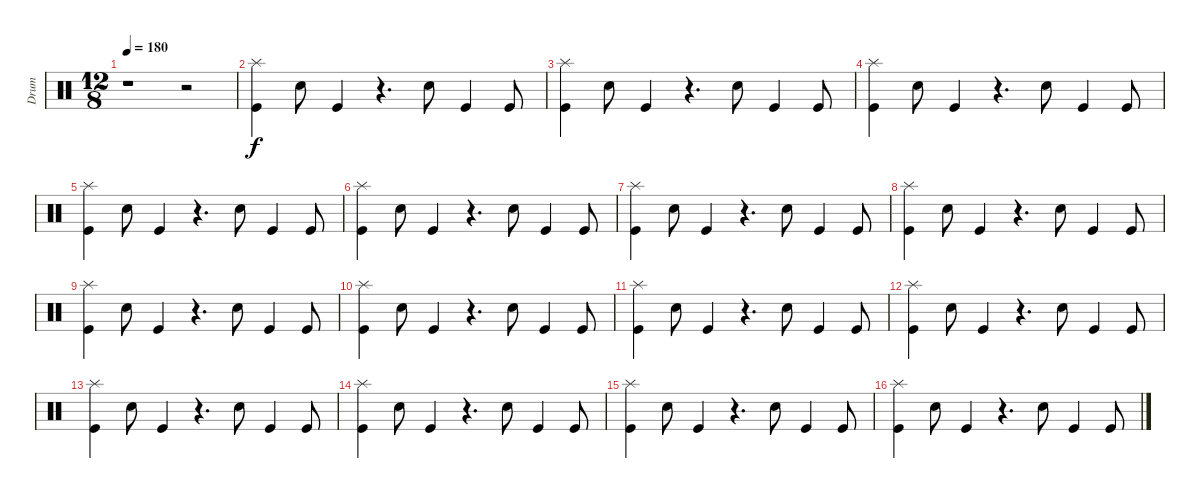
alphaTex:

\track ("Drum" "Drum") {instrument percussion}
\staff {score}
\articulation defaults
\ts (12 8)
\tempo 180
\clef neutral
\ks c
r.1{dy f} r.2 |
("Kick (hit)" "Splash (hit)").4 "Snare (hit) 2".8 "Kick (hit)".4 r.4{d} "Snare (hit) 2".8 "Kick (hit)".4 "Kick (hit)".8 |
("Kick (hit)" "Splash (hit)").4 "Snare (hit) 2".8 "Kick (hit)".4 r.4{d} "Snare (hit) 2".8 "Kick (hit)".4 "Kick (hit)".8 |
("Kick (hit)" "Splash (hit)").4 "Snare (hit) 2".8 "Kick (hit)".4 r.4{d} "Snare (hit) 2".8 "Kick (hit)".4 "Kick (hit)".8 |
("Kick (hit)" "Splash (hit)").4 "Snare (hit) 2".8 "Kick (hit)".4 r.4{d} "Snare (hit) 2".8 "Kick (hit)".4 "Kick (hit)".8 |
("Kick (hit)" "Splash (hit)").4 "Snare (hit) 2".8 "Kick (hit)".4 r.4{d} "Snare (hit) 2".8 "Kick (hit)".4 "Kick (hit)".8 |
("Kick (hit)" "Splash (hit)").4 "Snare (hit) 2".8 "Kick (hit)".4 r.4{d} "Snare (hit) 2".8 "Kick (hit)".4 "Kick (hit)".8 |
("Kick (hit)" "Splash (hit)").4 "Snare (hit) 2".8 "Kick (hit)".4 r.4{d} "Snare (hit) 2".8 "Kick (hit)".4 "Kick (hit)".8 |
("Kick (hit)" "Splash (hit)").4 "Snare (hit) 2".8 "Kick (hit)".4 r.4{d} "Snare (hit) 2".8 "Kick (hit)".4 "Kick (hit)".8 |
("Kick (hit)" "Splash (hit)").4 "Snare (hit) 2".8 "Kick (hit)".4 r.4{d} "Snare (hit) 2".8 "Kick (hit)".4 "Kick (hit)".8 |
("Kick (hit)" "Splash (hit)").4 "Snare (hit) 2".8 "Kick (hit)".4 r.4{d} "Snare (hit) 2".8 "Kick (hit)".4 "Kick (hit)".8 |
("Kick (hit)" "Splash (hit)").4 "Snare (hit) 2".8 "Kick (hit)".4 r.4{d} "Snare (hit) 2".8 "Kick (hit)".4 "Kick (hit)".8 |
("Kick (hit)" "Splash (hit)").4 "Snare (hit) 2".8 "Kick (hit)".4 r.4{d} "Snare (hit) 2".8 "Kick (hit)".4 "Kick (hit)".8 |
("Kick (hit)" "Splash (hit)").4 "Snare (hit) 2".8 "Kick (hit)".4 r.4{d} "Snare (hit) 2".8 "Kick (hit)".4 "Kick (hit)".8 |
("Kick (hit)" "Splash (hit)").4 "Snare (hit) 2".8 "Kick (hit)".4 r.4{d} "Snare (hit) 2".8 "Kick (hit)".4 "Kick (hit)".8 |
("Kick (hit)" "Splash (hit)").4 "Snare (hit) 2".8 "Kick (hit)".4 r.4{d} "Snare (hit) 2".8 "Kick (hit)".4 "Kick (hit)".8
